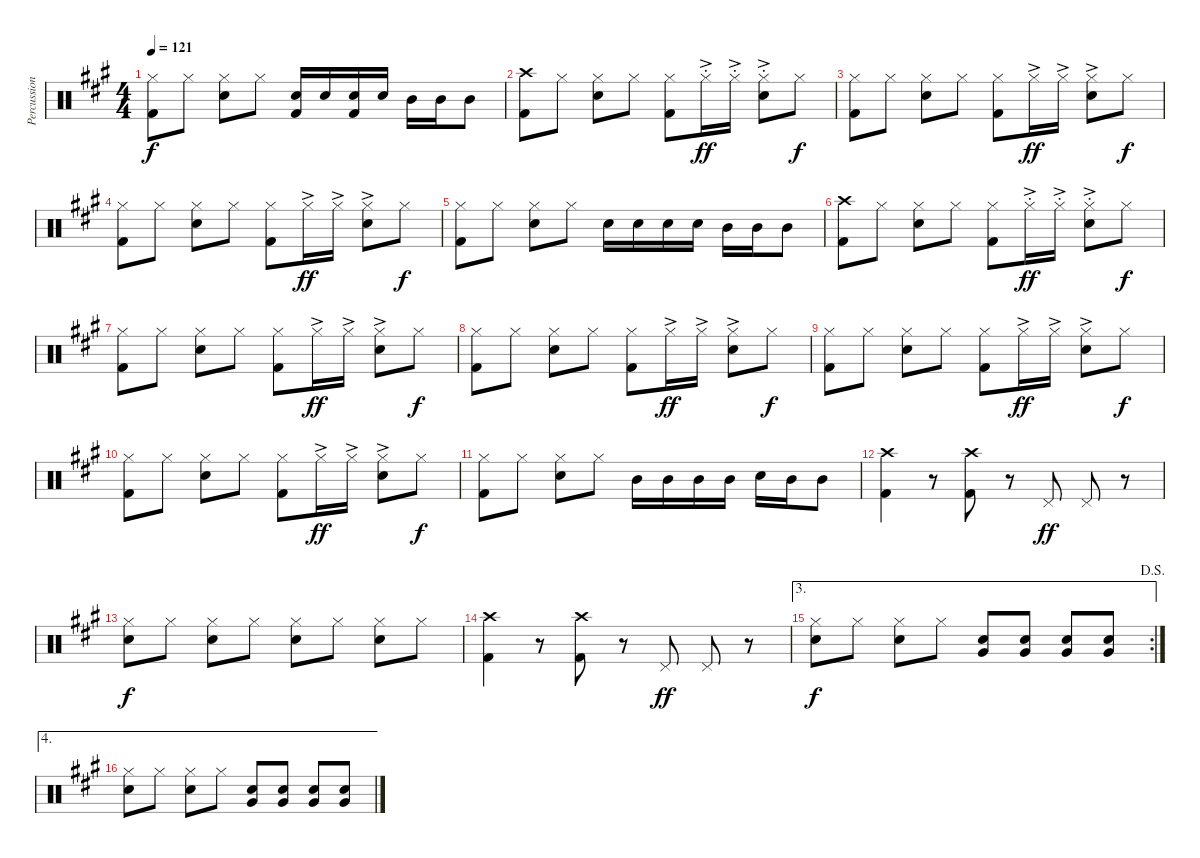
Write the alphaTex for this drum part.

\track ("Percussion" "Percussion") {instrument percussion}
\staff {score}
\articulation defaults
\ts (4 4)
\tempo 121
\clef neutral
\ks a
("Hi-Hat (closed)" "Kick (hit) 2").8{dy f} "Hi-Hat (closed)".8 ("Hi-Hat (closed)" "Snare (hit) 2").8 "Hi-Hat (closed)".8 ("Snare (hit) 2" "Kick (hit) 2").16 "Snare (hit) 2".16 ("Snare (hit) 2" "Kick (hit) 2").16 "Snare (hit) 2".16 "Mid Tom (hit)".16 "Mid Tom (hit)".16 "Mid Tom (hit)".8 |
("Crash high (hit)" "Kick (hit) 2").8 "Hi-Hat (closed)".8 ("Hi-Hat (closed)" "Snare (hit) 2").8 "Hi-Hat (closed)".8 ("Hi-Hat (closed)" "Kick (hit) 2").8 "Hi-Hat (closed)"{ac st}.16{dy ff} "Hi-Hat (closed)"{ac st}.16 ("Hi-Hat (closed)"{ac st} "Snare (hit) 2").8 "Hi-Hat (closed)".8{dy f} |
("Hi-Hat (closed)" "Kick (hit) 2").8 "Hi-Hat (closed)".8 ("Hi-Hat (closed)" "Snare (hit) 2").8 "Hi-Hat (closed)".8 ("Hi-Hat (closed)" "Kick (hit) 2").8 "Hi-Hat (closed)"{ac}.16{dy ff} "Hi-Hat (closed)"{ac}.16 ("Hi-Hat (closed)"{ac} "Snare (hit) 2").8 "Hi-Hat (closed)".8{dy f} |
("Hi-Hat (closed)" "Kick (hit) 2").8 "Hi-Hat (closed)".8 ("Hi-Hat (closed)" "Snare (hit) 2").8 "Hi-Hat (closed)".8 ("Hi-Hat (closed)" "Kick (hit) 2").8 "Hi-Hat (closed)"{ac}.16{dy ff} "Hi-Hat (closed)"{ac}.16 ("Hi-Hat (closed)"{ac} "Snare (hit) 2").8 "Hi-Hat (closed)".8{dy f} |
("Hi-Hat (closed)" "Kick (hit) 2").8 "Hi-Hat (closed)".8 ("Hi-Hat (closed)" "Snare (hit) 2").8 "Hi-Hat (closed)".8 "Snare (hit) 2".16 "Snare (hit) 2".16 "Snare (hit) 2".16 "Snare (hit) 2".16 "Mid Tom (hit)".16 "Mid Tom (hit)".16 "Mid Tom (hit)".8 |
("Crash high (hit)" "Kick (hit) 2").8 "Hi-Hat (closed)".8 ("Hi-Hat (closed)" "Snare (hit) 2").8 "Hi-Hat (closed)".8 ("Hi-Hat (closed)" "Kick (hit) 2").8 "Hi-Hat (closed)"{ac st}.16{dy ff} "Hi-Hat (closed)"{ac st}.16 ("Hi-Hat (closed)"{ac st} "Snare (hit) 2").8 "Hi-Hat (closed)".8{dy f} |
("Hi-Hat (closed)" "Kick (hit) 2").8 "Hi-Hat (closed)".8 ("Hi-Hat (closed)" "Snare (hit) 2").8 "Hi-Hat (closed)".8 ("Hi-Hat (closed)" "Kick (hit) 2").8 "Hi-Hat (closed)"{ac}.16{dy ff} "Hi-Hat (closed)"{ac}.16 ("Hi-Hat (closed)"{ac} "Snare (hit) 2").8 "Hi-Hat (closed)".8{dy f} |
("Hi-Hat (closed)" "Kick (hit) 2").8 "Hi-Hat (closed)".8 ("Hi-Hat (closed)" "Snare (hit) 2").8 "Hi-Hat (closed)".8 ("Hi-Hat (closed)" "Kick (hit) 2").8 "Hi-Hat (closed)"{ac}.16{dy ff} "Hi-Hat (closed)"{ac}.16 ("Hi-Hat (closed)"{ac} "Snare (hit) 2").8 "Hi-Hat (closed)".8{dy f} |
("Hi-Hat (closed)" "Kick (hit) 2").8 "Hi-Hat (closed)".8 ("Hi-Hat (closed)" "Snare (hit) 2").8 "Hi-Hat (closed)".8 ("Hi-Hat (closed)" "Kick (hit) 2").8 "Hi-Hat (closed)"{ac}.16{dy ff} "Hi-Hat (closed)"{ac}.16 ("Hi-Hat (closed)"{ac} "Snare (hit) 2").8 "Hi-Hat (closed)".8{dy f} |
("Hi-Hat (closed)" "Kick (hit) 2").8 "Hi-Hat (closed)".8 ("Hi-Hat (closed)" "Snare (hit) 2").8 "Hi-Hat (closed)".8 ("Hi-Hat (closed)" "Kick (hit) 2").8 "Hi-Hat (closed)"{ac}.16{dy ff} "Hi-Hat (closed)"{ac}.16 ("Hi-Hat (closed)"{ac} "Snare (hit) 2").8 "Hi-Hat (closed)".8{dy f} |
("Hi-Hat (closed)" "Kick (hit) 2").8 "Hi-Hat (closed)".8 ("Hi-Hat (closed)" "Snare (hit) 2").8 "Hi-Hat (closed)".8 "Mid Tom (hit)".16 "Mid Tom (hit)".16 "Mid Tom (hit)".16 "Mid Tom (hit)".16 "Snare (hit) 2".16 "Mid Tom (hit)".16 "Mid Tom (hit)".8 |
("Crash high (hit)" "Kick (hit) 2").4 r.8 ("Crash high (hit)" "Kick (hit) 2").8 r.8 "Pedal Hi-Hat (hit)".8{dy ff} "Pedal Hi-Hat (hit)".8 r.8 |
("Hi-Hat (closed)" "Snare (hit) 2").8{dy f} "Hi-Hat (closed)".8 ("Hi-Hat (closed)" "Snare (hit) 2").8 "Hi-Hat (closed)".8 ("Hi-Hat (closed)" "Snare (hit) 2").8 "Hi-Hat (closed)".8 ("Hi-Hat (closed)" "Snare (hit) 2").8 "Hi-Hat (closed)".8 |
("Crash high (hit)" "Kick (hit) 2").4 r.8 ("Crash high (hit)" "Kick (hit) 2").8 r.8 "Pedal Hi-Hat (hit)".8{dy ff} "Pedal Hi-Hat (hit)".8 r.8 |
\ae 3
\rc 2
\jump dalsegno
("Hi-Hat (closed)" "Snare (hit) 2").8{dy f} "Hi-Hat (closed)".8 ("Hi-Hat (closed)" "Snare (hit) 2").8 "Hi-Hat (closed)".8 ("Very Low Tom (hit)" "Snare (hit) 2").8 ("Very Low Tom (hit)" "Snare (hit) 2").8 ("Very Low Tom (hit)" "Snare (hit) 2").8 ("Very Low Tom (hit)" "Snare (hit) 2").8 |
\ae 4
("Hi-Hat (closed)" "Snare (hit) 2").8 "Hi-Hat (closed)".8 ("Hi-Hat (closed)" "Snare (hit) 2").8 "Hi-Hat (closed)".8 ("Very Low Tom (hit)" "Snare (hit) 2").8 ("Very Low Tom (hit)" "Snare (hit) 2").8 ("Very Low Tom (hit)" "Snare (hit) 2").8 ("Very Low Tom (hit)" "Snare (hit) 2").8
